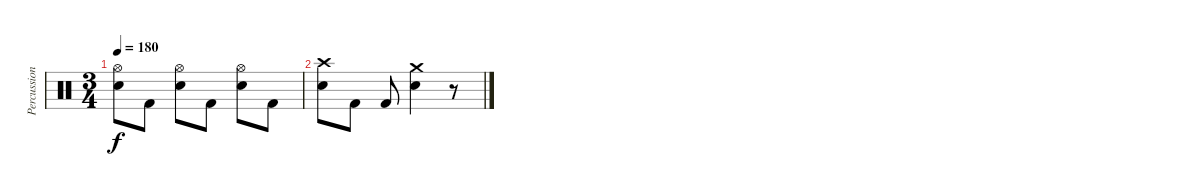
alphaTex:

\track ("Percussion" "Percussion") {instrument percussion}
\staff {score}
\articulation defaults
\ts (3 4)
\tempo 180
\clef neutral
\ks c
("Hi-Hat (open)" "Electric Snare (hit)").8{dy f} "Kick (hit) 2".8 ("Hi-Hat (open)" "Electric Snare (hit)").8 "Kick (hit) 2".8 ("Hi-Hat (open)" "Electric Snare (hit)").8 "Kick (hit) 2".8 |
("Crash high (hit)" "Electric Snare (hit)").8 "Kick (hit) 2".8 "Kick (hit) 2".8 ("Crash medium (hit)" "Electric Snare (hit)").4 r.8
